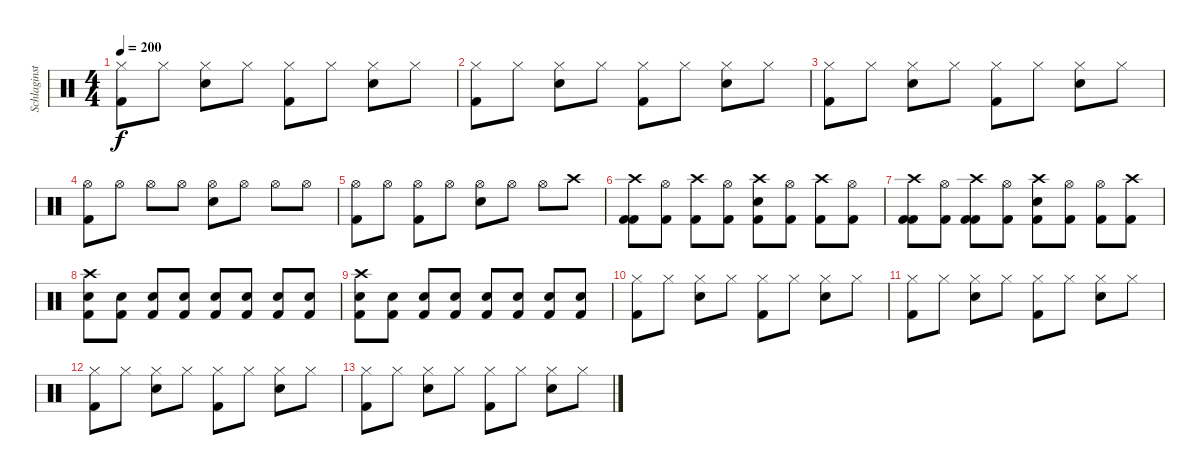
\track ("Schlaginstrumente - Auswahl" "Schlaginst") {instrument percussion}
\staff {score}
\articulation defaults
\ts (4 4)
\tempo 200
\clef neutral
\ks c
("Hi-Hat (closed)" "Kick (hit) 2").8{dy f} "Hi-Hat (closed)".8 ("Hi-Hat (closed)" "Snare (hit) 2").8 "Hi-Hat (closed)".8 ("Hi-Hat (closed)" "Kick (hit) 2").8 "Hi-Hat (closed)".8 ("Hi-Hat (closed)" "Snare (hit) 2").8 "Hi-Hat (closed)".8 |
("Hi-Hat (closed)" "Kick (hit) 2").8 "Hi-Hat (closed)".8 ("Hi-Hat (closed)" "Snare (hit) 2").8 "Hi-Hat (closed)".8 ("Hi-Hat (closed)" "Kick (hit) 2").8 "Hi-Hat (closed)".8 ("Hi-Hat (closed)" "Snare (hit) 2").8 "Hi-Hat (closed)".8 |
("Hi-Hat (closed)" "Kick (hit) 2").8 "Hi-Hat (closed)".8 ("Hi-Hat (closed)" "Snare (hit) 2").8 "Hi-Hat (closed)".8 ("Hi-Hat (closed)" "Kick (hit) 2").8 "Hi-Hat (closed)".8 ("Hi-Hat (closed)" "Snare (hit) 2").8 "Hi-Hat (closed)".8 |
("Hi-Hat (open)" "Kick (hit) 2").8 "Hi-Hat (open)".8 "Hi-Hat (open)".8 "Hi-Hat (open)".8 ("Hi-Hat (open)" "Snare (hit) 2").8 "Hi-Hat (open)".8 "Hi-Hat (open)".8 "Hi-Hat (open)".8 |
("Hi-Hat (open)" "Kick (hit) 2").8 "Hi-Hat (open)".8 ("Hi-Hat (open)" "Kick (hit) 2").8 "Hi-Hat (open)".8 ("Hi-Hat (open)" "Snare (hit) 2").8 "Hi-Hat (open)".8 "Hi-Hat (open)".8 "Crash high (hit)".8 |
("Kick (hit) 2" "Crash high (hit)" "Kick (hit) 2").8 ("Kick (hit) 2" "Hi-Hat (open)").8 ("Kick (hit) 2" "Crash high (hit)").8 ("Kick (hit) 2" "Hi-Hat (open)").8 ("Kick (hit) 2" "Crash high (hit)" "Snare (hit) 2").8 ("Kick (hit) 2" "Hi-Hat (open)").8 ("Kick (hit) 2" "Crash high (hit)").8 ("Kick (hit) 2" "Hi-Hat (open)").8 |
("Kick (hit) 2" "Crash high (hit)" "Kick (hit) 2").8 ("Kick (hit) 2" "Hi-Hat (open)").8 ("Kick (hit) 2" "Crash high (hit)" "Kick (hit) 2").8 ("Kick (hit) 2" "Hi-Hat (open)").8 ("Kick (hit) 2" "Crash high (hit)" "Snare (hit) 2").8 ("Kick (hit) 2" "Hi-Hat (open)").8 ("Kick (hit) 2" "Hi-Hat (open)").8 ("Kick (hit) 2" "Crash high (hit)").8 |
("Snare (hit) 2" "Crash high (hit)" "Kick (hit) 2").8 ("Snare (hit) 2" "Kick (hit) 2").8 ("Snare (hit) 2" "Kick (hit) 2").8 ("Snare (hit) 2" "Kick (hit) 2").8 ("Snare (hit) 2" "Kick (hit) 2").8 ("Snare (hit) 2" "Kick (hit) 2").8 ("Snare (hit) 2" "Kick (hit) 2").8 ("Snare (hit) 2" "Kick (hit) 2").8 |
("Snare (hit) 2" "Crash high (hit)" "Kick (hit) 2").8 ("Snare (hit) 2" "Kick (hit) 2").8 ("Snare (hit) 2" "Kick (hit) 2").8 ("Snare (hit) 2" "Kick (hit) 2").8 ("Snare (hit) 2" "Kick (hit) 2").8 ("Snare (hit) 2" "Kick (hit) 2").8 ("Snare (hit) 2" "Kick (hit) 2").8 ("Snare (hit) 2" "Kick (hit) 2").8 |
("Hi-Hat (closed)" "Kick (hit) 2").8 "Hi-Hat (closed)".8 ("Hi-Hat (closed)" "Snare (hit) 2").8 "Hi-Hat (closed)".8 ("Hi-Hat (closed)" "Kick (hit) 2").8 "Hi-Hat (closed)".8 ("Hi-Hat (closed)" "Snare (hit) 2").8 "Hi-Hat (closed)".8 |
("Hi-Hat (closed)" "Kick (hit) 2").8 "Hi-Hat (closed)".8 ("Hi-Hat (closed)" "Snare (hit) 2").8 "Hi-Hat (closed)".8 ("Hi-Hat (closed)" "Kick (hit) 2").8 "Hi-Hat (closed)".8 ("Hi-Hat (closed)" "Snare (hit) 2").8 "Hi-Hat (closed)".8 |
("Hi-Hat (closed)" "Kick (hit) 2").8 "Hi-Hat (closed)".8 ("Hi-Hat (closed)" "Snare (hit) 2").8 "Hi-Hat (closed)".8 ("Hi-Hat (closed)" "Kick (hit) 2").8 "Hi-Hat (closed)".8 ("Hi-Hat (closed)" "Snare (hit) 2").8 "Hi-Hat (closed)".8 |
("Hi-Hat (closed)" "Kick (hit) 2").8 "Hi-Hat (closed)".8 ("Hi-Hat (closed)" "Snare (hit) 2").8 "Hi-Hat (closed)".8 ("Hi-Hat (closed)" "Kick (hit) 2").8 "Hi-Hat (closed)".8 ("Hi-Hat (closed)" "Snare (hit) 2").8 "Hi-Hat (closed)".8
